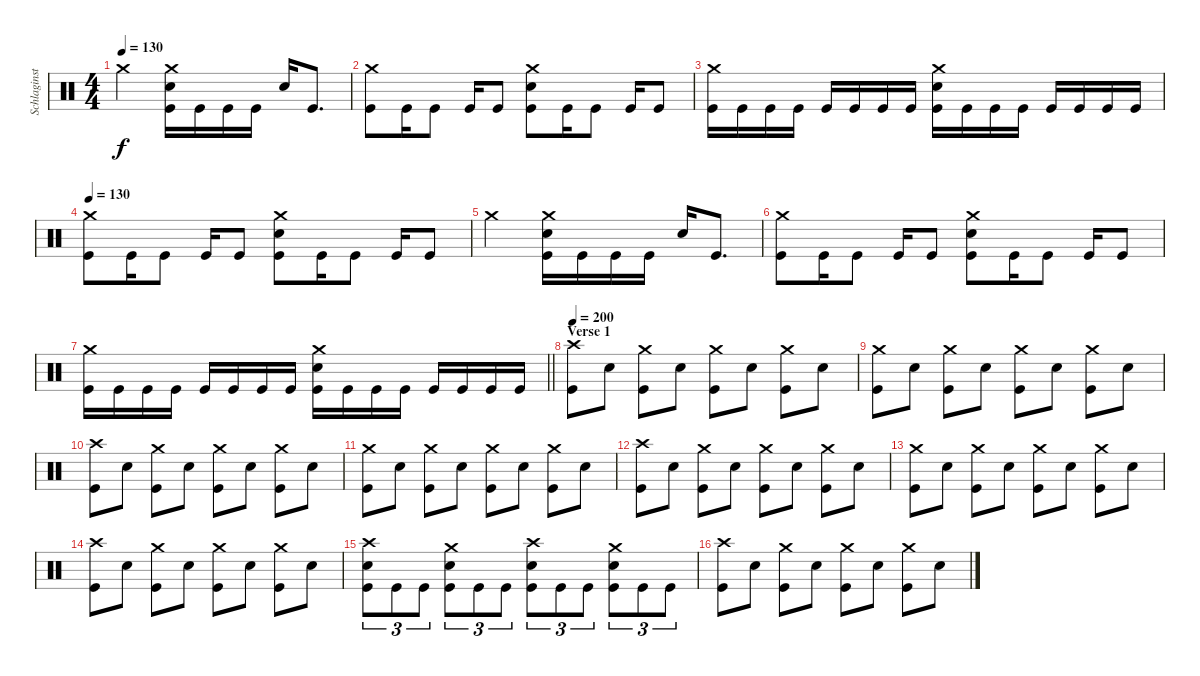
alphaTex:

\track ("Schlaginstrumente - Auswahl" "Schlaginst") {instrument percussion}
\staff {score}
\articulation defaults
\ts (4 4)
\tempo 130
\clef neutral
\ks c "Crash medium (hit)".2{dy f}
("Crash medium (hit)" "Electric Snare (hit)" "Kick (hit)").16 "Kick (hit)".16 "Kick (hit)".16 "Kick (hit)".16 "Electric Snare (hit)".16 "Kick (hit)".8{d} |
("Crash medium (hit)" "Kick (hit)").8 "Kick (hit)".16 "Kick (hit)".8 "Kick (hit)".16 "Kick (hit)".8 ("Crash medium (hit)" "Electric Snare (hit)" "Kick (hit)").8 "Kick (hit)".16 "Kick (hit)".8 "Kick (hit)".16 "Kick (hit)".8 |
("Crash medium (hit)" "Kick (hit)").16 "Kick (hit)".16 "Kick (hit)".16 "Kick (hit)".16 "Kick (hit)".16 "Kick (hit)".16 "Kick (hit)".16 "Kick (hit)".16 ("Crash medium (hit)" "Electric Snare (hit)" "Kick (hit)").16 "Kick (hit)".16 "Kick (hit)".16 "Kick (hit)".16 "Kick (hit)".16 "Kick (hit)".16 "Kick (hit)".16 "Kick (hit)".16 |
\tempo 130
("Crash medium (hit)" "Kick (hit)").8 "Kick (hit)".16 "Kick (hit)".8 "Kick (hit)".16 "Kick (hit)".8 ("Crash medium (hit)" "Electric Snare (hit)" "Kick (hit)").8 "Kick (hit)".16 "Kick (hit)".8 "Kick (hit)".16 "Kick (hit)".8 |
"Crash medium (hit)".2 ("Crash medium (hit)" "Electric Snare (hit)" "Kick (hit)").16 "Kick (hit)".16 "Kick (hit)".16 "Kick (hit)".16 "Electric Snare (hit)".16 "Kick (hit)".8{d} |
("Crash medium (hit)" "Kick (hit)").8 "Kick (hit)".16 "Kick (hit)".8 "Kick (hit)".16 "Kick (hit)".8 ("Crash medium (hit)" "Electric Snare (hit)" "Kick (hit)").8 "Kick (hit)".16 "Kick (hit)".8 "Kick (hit)".16 "Kick (hit)".8 |
\barLineRight lightlight
("Crash medium (hit)" "Kick (hit)").16 "Kick (hit)".16 "Kick (hit)".16 "Kick (hit)".16 "Kick (hit)".16 "Kick (hit)".16 "Kick (hit)".16 "Kick (hit)".16 ("Crash medium (hit)" "Electric Snare (hit)" "Kick (hit)").16 "Kick (hit)".16 "Kick (hit)".16 "Kick (hit)".16 "Kick (hit)".16 "Kick (hit)".16 "Kick (hit)".16 "Kick (hit)".16 |
\section ("" "Verse 1")
\tempo 200
("Crash high (hit)" "Kick (hit)").8 "Electric Snare (hit)".8 ("Crash medium (hit)" "Kick (hit)").8 "Electric Snare (hit)".8 ("Crash medium (hit)" "Kick (hit)").8 "Electric Snare (hit)".8 ("Crash medium (hit)" "Kick (hit)").8 "Electric Snare (hit)".8 |
("Crash medium (hit)" "Kick (hit)").8 "Electric Snare (hit)".8 ("Crash medium (hit)" "Kick (hit)").8 "Electric Snare (hit)".8 ("Crash medium (hit)" "Kick (hit)").8 "Electric Snare (hit)".8 ("Crash medium (hit)" "Kick (hit)").8 "Electric Snare (hit)".8 |
("Crash high (hit)" "Kick (hit)").8 "Electric Snare (hit)".8 ("Crash medium (hit)" "Kick (hit)").8 "Electric Snare (hit)".8 ("Crash medium (hit)" "Kick (hit)").8 "Electric Snare (hit)".8 ("Crash medium (hit)" "Kick (hit)").8 "Electric Snare (hit)".8 |
("Crash medium (hit)" "Kick (hit)").8 "Electric Snare (hit)".8 ("Crash medium (hit)" "Kick (hit)").8 "Electric Snare (hit)".8 ("Crash medium (hit)" "Kick (hit)").8 "Electric Snare (hit)".8 ("Crash medium (hit)" "Kick (hit)").8 "Electric Snare (hit)".8 |
("Crash high (hit)" "Kick (hit)").8 "Electric Snare (hit)".8 ("Crash medium (hit)" "Kick (hit)").8 "Electric Snare (hit)".8 ("Crash medium (hit)" "Kick (hit)").8 "Electric Snare (hit)".8 ("Crash medium (hit)" "Kick (hit)").8 "Electric Snare (hit)".8 |
("Crash medium (hit)" "Kick (hit)").8 "Electric Snare (hit)".8 ("Crash medium (hit)" "Kick (hit)").8 "Electric Snare (hit)".8 ("Crash medium (hit)" "Kick (hit)").8 "Electric Snare (hit)".8 ("Crash medium (hit)" "Kick (hit)").8 "Electric Snare (hit)".8 |
("Crash high (hit)" "Kick (hit)").8 "Electric Snare (hit)".8 ("Crash medium (hit)" "Kick (hit)").8 "Electric Snare (hit)".8 ("Crash medium (hit)" "Kick (hit)").8 "Electric Snare (hit)".8 ("Crash medium (hit)" "Kick (hit)").8 "Electric Snare (hit)".8 |
("Crash high (hit)" "Electric Snare (hit)" "Kick (hit)").8{tu (3 2)} "Kick (hit)".8{tu (3 2)} "Kick (hit)".8{tu (3 2)} ("Crash medium (hit)" "Electric Snare (hit)" "Kick (hit)").8{tu (3 2)} "Kick (hit)".8{tu (3 2)} "Kick (hit)".8{tu (3 2)} ("Crash high (hit)" "Electric Snare (hit)" "Kick (hit)").8{tu (3 2)} "Kick (hit)".8{tu (3 2)} "Kick (hit)".8{tu (3 2)} ("Crash medium (hit)" "Electric Snare (hit)" "Kick (hit)").8{tu (3 2)} "Kick (hit)".8{tu (3 2)} "Kick (hit)".8{tu (3 2)} |
("Crash high (hit)" "Kick (hit)").8 "Electric Snare (hit)".8 ("Crash medium (hit)" "Kick (hit)").8 "Electric Snare (hit)".8 ("Crash medium (hit)" "Kick (hit)").8 "Electric Snare (hit)".8 ("Crash medium (hit)" "Kick (hit)").8 "Electric Snare (hit)".8
